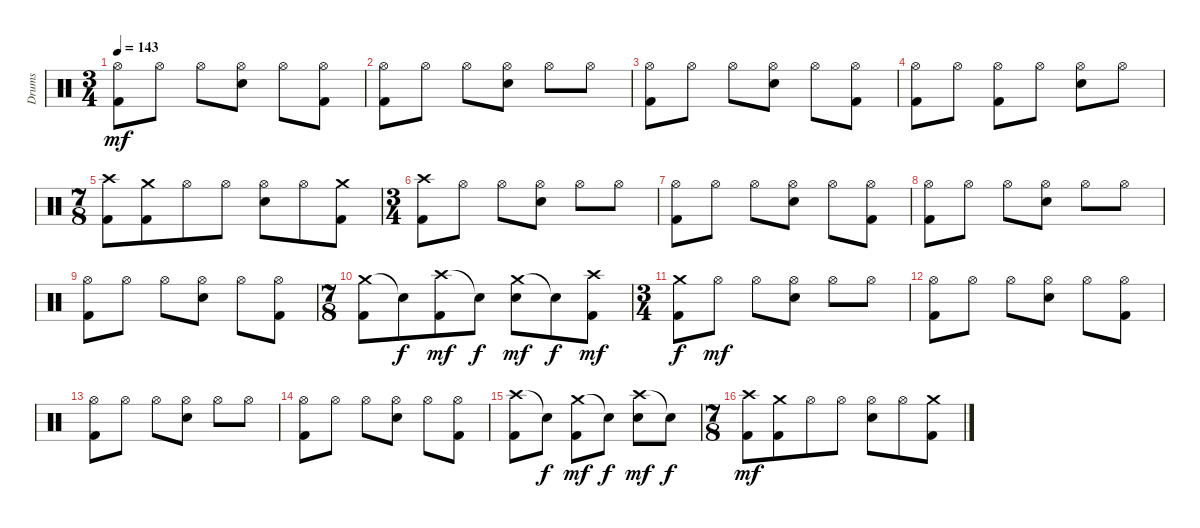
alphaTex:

\track ("Drums" "Drums") {instrument percussion}
\staff {score}
\articulation defaults
\ts (3 4)
\tempo 143
\clef neutral
\ks c
("Hi-Hat (open)" "Kick (hit) 2").8{dy mf} "Hi-Hat (open)".8 "Hi-Hat (open)".8 ("Hi-Hat (open)" "Electric Snare (hit)").8 "Hi-Hat (open)".8 ("Hi-Hat (open)" "Kick (hit) 2").8 |
("Hi-Hat (open)" "Kick (hit) 2").8 "Hi-Hat (open)".8 "Hi-Hat (open)".8 ("Hi-Hat (open)" "Electric Snare (hit)").8 "Hi-Hat (open)".8 "Hi-Hat (open)".8 |
("Hi-Hat (open)" "Kick (hit) 2").8 "Hi-Hat (open)".8 "Hi-Hat (open)".8 ("Hi-Hat (open)" "Electric Snare (hit)").8 "Hi-Hat (open)".8 ("Hi-Hat (open)" "Kick (hit) 2").8 |
("Hi-Hat (open)" "Kick (hit) 2").8 "Hi-Hat (open)".8 ("Hi-Hat (open)" "Kick (hit) 2").8 "Hi-Hat (open)".8 ("Hi-Hat (open)" "Electric Snare (hit)").8 "Hi-Hat (open)".8 |
\ts (7 8)
("Crash high (hit)" "Kick (hit) 2").8 ("Crash medium (hit)" "Kick (hit) 2").8 "Hi-Hat (open)".8 "Hi-Hat (open)".8 ("Hi-Hat (open)" "Electric Snare (hit)").8 "Hi-Hat (open)".8 ("Crash medium (hit)" "Kick (hit) 2").8 |
\ts (3 4)
("Crash high (hit)" "Kick (hit) 2").8 "Hi-Hat (open)".8 "Hi-Hat (open)".8 ("Hi-Hat (open)" "Electric Snare (hit)").8 "Hi-Hat (open)".8 "Hi-Hat (open)".8 |
("Hi-Hat (open)" "Kick (hit) 2").8 "Hi-Hat (open)".8 "Hi-Hat (open)".8 ("Hi-Hat (open)" "Electric Snare (hit)").8 "Hi-Hat (open)".8 ("Hi-Hat (open)" "Kick (hit) 2").8 |
("Hi-Hat (open)" "Kick (hit) 2").8 "Hi-Hat (open)".8 "Hi-Hat (open)".8 ("Hi-Hat (open)" "Electric Snare (hit)").8 "Hi-Hat (open)".8 "Hi-Hat (open)".8 |
("Hi-Hat (open)" "Kick (hit) 2").8 "Hi-Hat (open)".8 "Hi-Hat (open)".8 ("Hi-Hat (open)" "Electric Snare (hit)").8 "Hi-Hat (open)".8 ("Hi-Hat (open)" "Kick (hit) 2").8 |
\ts (7 8)
("Crash medium (hit)" "Kick (hit) 2").8 "Snare (hit)"{t}.8{dy f} ("Crash high (hit)" "Kick (hit) 2").8{dy mf} "Snare (hit)"{t}.8{dy f} ("Crash medium (hit)" "Electric Snare (hit)").8{dy mf} "Snare (hit)"{t}.8{dy f} ("Crash high (hit)" "Kick (hit) 2").8{dy mf} |
\ts (3 4)
("Crash medium (hit)" "Kick (hit) 2").8{dy f} "Hi-Hat (open)".8{dy mf} "Hi-Hat (open)".8 ("Hi-Hat (open)" "Electric Snare (hit)").8 "Hi-Hat (open)".8 "Hi-Hat (open)".8 |
("Hi-Hat (open)" "Kick (hit) 2").8 "Hi-Hat (open)".8 "Hi-Hat (open)".8 ("Hi-Hat (open)" "Electric Snare (hit)").8 "Hi-Hat (open)".8 ("Hi-Hat (open)" "Kick (hit) 2").8 |
("Hi-Hat (open)" "Kick (hit) 2").8 "Hi-Hat (open)".8 "Hi-Hat (open)".8 ("Hi-Hat (open)" "Electric Snare (hit)").8 "Hi-Hat (open)".8 "Hi-Hat (open)".8 |
("Hi-Hat (open)" "Kick (hit) 2").8 "Hi-Hat (open)".8 "Hi-Hat (open)".8 ("Hi-Hat (open)" "Electric Snare (hit)").8 "Hi-Hat (open)".8 ("Hi-Hat (open)" "Kick (hit) 2").8 |
("Crash high (hit)" "Kick (hit) 2").8 "Snare (hit)"{t}.8{dy f} ("Crash medium (hit)" "Kick (hit) 2").8{dy mf} "Snare (hit)"{t}.8{dy f} ("Crash high (hit)" "Electric Snare (hit)").8{dy mf} "Snare (hit)"{t}.8{dy f} |
\ts (7 8)
("Crash high (hit)" "Kick (hit) 2").8{dy mf} ("Crash medium (hit)" "Kick (hit) 2").8 "Hi-Hat (open)".8 "Hi-Hat (open)".8 ("Hi-Hat (open)" "Electric Snare (hit)").8 "Hi-Hat (open)".8 ("Crash medium (hit)" "Kick (hit) 2").8
